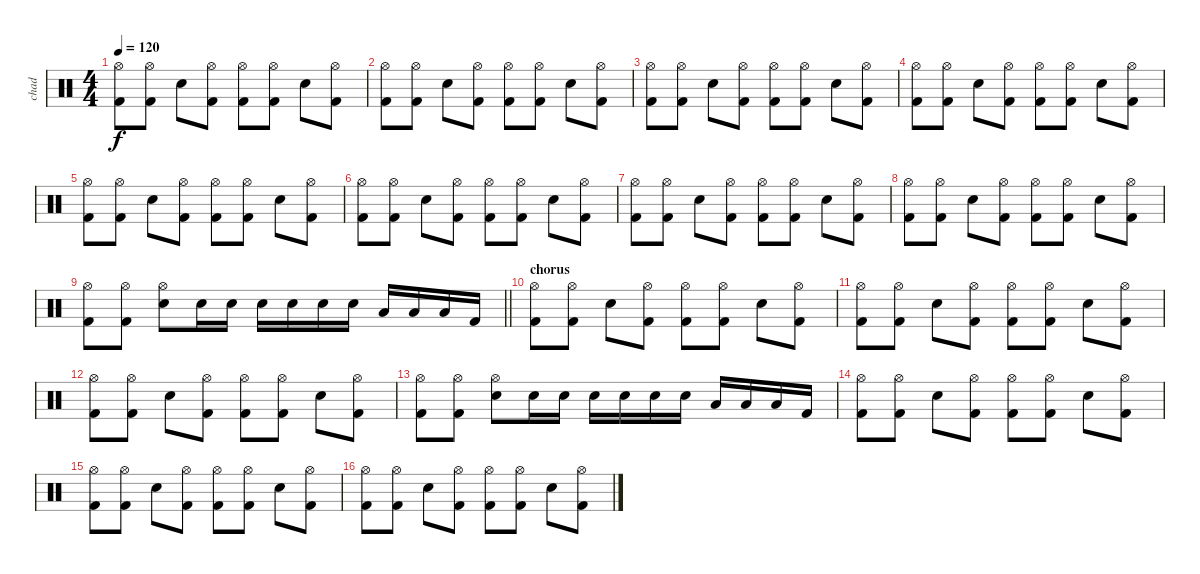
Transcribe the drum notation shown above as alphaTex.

\track ("chad" "chad") {instrument percussion}
\staff {score}
\articulation defaults
\ts (4 4)
\tempo 120
\clef neutral
\ks c
("Hi-Hat (open)" "Kick (hit) 2").8{dy f} ("Hi-Hat (open)" "Kick (hit) 2").8 "Electric Snare (hit)".8 ("Hi-Hat (open)" "Kick (hit) 2").8 ("Hi-Hat (open)" "Kick (hit) 2").8 ("Hi-Hat (open)" "Kick (hit) 2").8 "Electric Snare (hit)".8 ("Hi-Hat (open)" "Kick (hit) 2").8 |
("Hi-Hat (open)" "Kick (hit) 2").8 ("Hi-Hat (open)" "Kick (hit) 2").8 "Electric Snare (hit)".8 ("Hi-Hat (open)" "Kick (hit) 2").8 ("Hi-Hat (open)" "Kick (hit) 2").8 ("Hi-Hat (open)" "Kick (hit) 2").8 "Electric Snare (hit)".8 ("Hi-Hat (open)" "Kick (hit) 2").8 |
("Hi-Hat (open)" "Kick (hit) 2").8 ("Hi-Hat (open)" "Kick (hit) 2").8 "Electric Snare (hit)".8 ("Hi-Hat (open)" "Kick (hit) 2").8 ("Hi-Hat (open)" "Kick (hit) 2").8 ("Hi-Hat (open)" "Kick (hit) 2").8 "Electric Snare (hit)".8 ("Hi-Hat (open)" "Kick (hit) 2").8 |
("Hi-Hat (open)" "Kick (hit) 2").8 ("Hi-Hat (open)" "Kick (hit) 2").8 "Electric Snare (hit)".8 ("Hi-Hat (open)" "Kick (hit) 2").8 ("Hi-Hat (open)" "Kick (hit) 2").8 ("Hi-Hat (open)" "Kick (hit) 2").8 "Electric Snare (hit)".8 ("Hi-Hat (open)" "Kick (hit) 2").8 |
("Hi-Hat (open)" "Kick (hit) 2").8 ("Hi-Hat (open)" "Kick (hit) 2").8 "Electric Snare (hit)".8 ("Hi-Hat (open)" "Kick (hit) 2").8 ("Hi-Hat (open)" "Kick (hit) 2").8 ("Hi-Hat (open)" "Kick (hit) 2").8 "Electric Snare (hit)".8 ("Hi-Hat (open)" "Kick (hit) 2").8 |
("Hi-Hat (open)" "Kick (hit) 2").8 ("Hi-Hat (open)" "Kick (hit) 2").8 "Electric Snare (hit)".8 ("Hi-Hat (open)" "Kick (hit) 2").8 ("Hi-Hat (open)" "Kick (hit) 2").8 ("Hi-Hat (open)" "Kick (hit) 2").8 "Electric Snare (hit)".8 ("Hi-Hat (open)" "Kick (hit) 2").8 |
("Hi-Hat (open)" "Kick (hit) 2").8 ("Hi-Hat (open)" "Kick (hit) 2").8 "Electric Snare (hit)".8 ("Hi-Hat (open)" "Kick (hit) 2").8 ("Hi-Hat (open)" "Kick (hit) 2").8 ("Hi-Hat (open)" "Kick (hit) 2").8 "Electric Snare (hit)".8 ("Hi-Hat (open)" "Kick (hit) 2").8 |
("Hi-Hat (open)" "Kick (hit) 2").8 ("Hi-Hat (open)" "Kick (hit) 2").8 "Electric Snare (hit)".8 ("Hi-Hat (open)" "Kick (hit) 2").8 ("Hi-Hat (open)" "Kick (hit) 2").8 ("Hi-Hat (open)" "Kick (hit) 2").8 "Electric Snare (hit)".8 ("Hi-Hat (open)" "Kick (hit) 2").8 |
\barLineRight lightlight
("Hi-Hat (open)" "Kick (hit) 2").8 ("Hi-Hat (open)" "Kick (hit) 2").8 ("Hi-Hat (open)" "Electric Snare (hit)").8 "Snare (hit) 2".16 "Snare (hit) 2".16 "Snare (hit) 2".16 "Electric Snare (hit)".16 "Electric Snare (hit)".16 "Electric Snare (hit)".16 "Low Tom (hit)".16 "Low Tom (hit)".16 "Low Tom (hit)".16 "Kick (hit) 2".16 |
\section ("" "chorus")
("Hi-Hat (open)" "Kick (hit) 2").8 ("Hi-Hat (open)" "Kick (hit) 2").8 "Electric Snare (hit)".8 ("Hi-Hat (open)" "Kick (hit) 2").8 ("Hi-Hat (open)" "Kick (hit) 2").8 ("Hi-Hat (open)" "Kick (hit) 2").8 "Electric Snare (hit)".8 ("Hi-Hat (open)" "Kick (hit) 2").8 |
("Hi-Hat (open)" "Kick (hit) 2").8 ("Hi-Hat (open)" "Kick (hit) 2").8 "Electric Snare (hit)".8 ("Hi-Hat (open)" "Kick (hit) 2").8 ("Hi-Hat (open)" "Kick (hit) 2").8 ("Hi-Hat (open)" "Kick (hit) 2").8 "Electric Snare (hit)".8 ("Hi-Hat (open)" "Kick (hit) 2").8 |
("Hi-Hat (open)" "Kick (hit) 2").8 ("Hi-Hat (open)" "Kick (hit) 2").8 "Electric Snare (hit)".8 ("Hi-Hat (open)" "Kick (hit) 2").8 ("Hi-Hat (open)" "Kick (hit) 2").8 ("Hi-Hat (open)" "Kick (hit) 2").8 "Electric Snare (hit)".8 ("Hi-Hat (open)" "Kick (hit) 2").8 |
("Hi-Hat (open)" "Kick (hit) 2").8 ("Hi-Hat (open)" "Kick (hit) 2").8 ("Hi-Hat (open)" "Electric Snare (hit)").8 "Snare (hit) 2".16 "Snare (hit) 2".16 "Snare (hit) 2".16 "Electric Snare (hit)".16 "Electric Snare (hit)".16 "Electric Snare (hit)".16 "Low Tom (hit)".16 "Low Tom (hit)".16 "Low Tom (hit)".16 "Kick (hit) 2".16 |
("Hi-Hat (open)" "Kick (hit) 2").8 ("Hi-Hat (open)" "Kick (hit) 2").8 "Electric Snare (hit)".8 ("Hi-Hat (open)" "Kick (hit) 2").8 ("Hi-Hat (open)" "Kick (hit) 2").8 ("Hi-Hat (open)" "Kick (hit) 2").8 "Electric Snare (hit)".8 ("Hi-Hat (open)" "Kick (hit) 2").8 |
("Hi-Hat (open)" "Kick (hit) 2").8 ("Hi-Hat (open)" "Kick (hit) 2").8 "Electric Snare (hit)".8 ("Hi-Hat (open)" "Kick (hit) 2").8 ("Hi-Hat (open)" "Kick (hit) 2").8 ("Hi-Hat (open)" "Kick (hit) 2").8 "Electric Snare (hit)".8 ("Hi-Hat (open)" "Kick (hit) 2").8 |
("Hi-Hat (open)" "Kick (hit) 2").8 ("Hi-Hat (open)" "Kick (hit) 2").8 "Electric Snare (hit)".8 ("Hi-Hat (open)" "Kick (hit) 2").8 ("Hi-Hat (open)" "Kick (hit) 2").8 ("Hi-Hat (open)" "Kick (hit) 2").8 "Electric Snare (hit)".8 ("Hi-Hat (open)" "Kick (hit) 2").8
